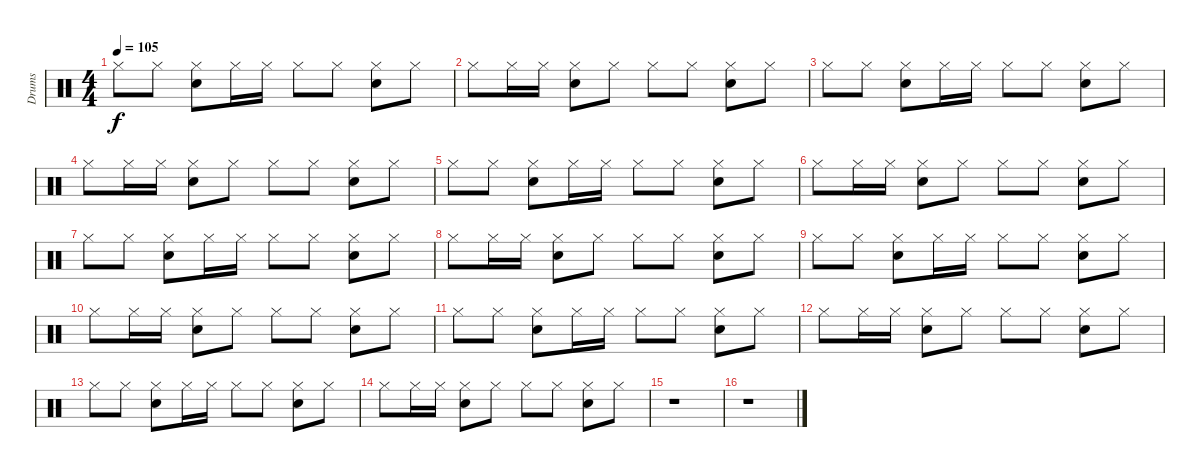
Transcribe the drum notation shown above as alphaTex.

\track ("Drums" "Drums") {instrument percussion}
\staff {score}
\articulation defaults
\ts (4 4)
\tempo 105
\clef neutral
\ks c "Hi-Hat (closed)".8{dy f} "Hi-Hat (closed)".8
("Hi-Hat (closed)" "Snare (hit) 2").8 "Hi-Hat (closed)".16 "Hi-Hat (closed)".16 "Hi-Hat (closed)".8 "Hi-Hat (closed)".8 ("Hi-Hat (closed)" "Snare (hit) 2").8 "Hi-Hat (closed)".8 |
"Hi-Hat (closed)".8 "Hi-Hat (closed)".16 "Hi-Hat (closed)".16 ("Hi-Hat (closed)" "Snare (hit) 2").8 "Hi-Hat (closed)".8 "Hi-Hat (closed)".8 "Hi-Hat (closed)".8 ("Hi-Hat (closed)" "Snare (hit) 2").8 "Hi-Hat (closed)".8 |
"Hi-Hat (closed)".8 "Hi-Hat (closed)".8 ("Hi-Hat (closed)" "Snare (hit) 2").8 "Hi-Hat (closed)".16 "Hi-Hat (closed)".16 "Hi-Hat (closed)".8 "Hi-Hat (closed)".8 ("Hi-Hat (closed)" "Snare (hit) 2").8 "Hi-Hat (closed)".8 |
"Hi-Hat (closed)".8 "Hi-Hat (closed)".16 "Hi-Hat (closed)".16 ("Hi-Hat (closed)" "Snare (hit) 2").8 "Hi-Hat (closed)".8 "Hi-Hat (closed)".8 "Hi-Hat (closed)".8 ("Hi-Hat (closed)" "Snare (hit) 2").8 "Hi-Hat (closed)".8 |
"Hi-Hat (closed)".8 "Hi-Hat (closed)".8 ("Hi-Hat (closed)" "Snare (hit) 2").8 "Hi-Hat (closed)".16 "Hi-Hat (closed)".16 "Hi-Hat (closed)".8 "Hi-Hat (closed)".8 ("Hi-Hat (closed)" "Snare (hit) 2").8 "Hi-Hat (closed)".8 |
"Hi-Hat (closed)".8 "Hi-Hat (closed)".16 "Hi-Hat (closed)".16 ("Hi-Hat (closed)" "Snare (hit) 2").8 "Hi-Hat (closed)".8 "Hi-Hat (closed)".8 "Hi-Hat (closed)".8 ("Hi-Hat (closed)" "Snare (hit) 2").8 "Hi-Hat (closed)".8 |
"Hi-Hat (closed)".8 "Hi-Hat (closed)".8 ("Hi-Hat (closed)" "Snare (hit) 2").8 "Hi-Hat (closed)".16 "Hi-Hat (closed)".16 "Hi-Hat (closed)".8 "Hi-Hat (closed)".8 ("Hi-Hat (closed)" "Snare (hit) 2").8 "Hi-Hat (closed)".8 |
"Hi-Hat (closed)".8 "Hi-Hat (closed)".16 "Hi-Hat (closed)".16 ("Hi-Hat (closed)" "Snare (hit) 2").8 "Hi-Hat (closed)".8 "Hi-Hat (closed)".8 "Hi-Hat (closed)".8 ("Hi-Hat (closed)" "Snare (hit) 2").8 "Hi-Hat (closed)".8 |
"Hi-Hat (closed)".8 "Hi-Hat (closed)".8 ("Hi-Hat (closed)" "Snare (hit) 2").8 "Hi-Hat (closed)".16 "Hi-Hat (closed)".16 "Hi-Hat (closed)".8 "Hi-Hat (closed)".8 ("Hi-Hat (closed)" "Snare (hit) 2").8 "Hi-Hat (closed)".8 |
"Hi-Hat (closed)".8 "Hi-Hat (closed)".16 "Hi-Hat (closed)".16 ("Hi-Hat (closed)" "Snare (hit) 2").8 "Hi-Hat (closed)".8 "Hi-Hat (closed)".8 "Hi-Hat (closed)".8 ("Hi-Hat (closed)" "Snare (hit) 2").8 "Hi-Hat (closed)".8 |
"Hi-Hat (closed)".8 "Hi-Hat (closed)".8 ("Hi-Hat (closed)" "Snare (hit) 2").8 "Hi-Hat (closed)".16 "Hi-Hat (closed)".16 "Hi-Hat (closed)".8 "Hi-Hat (closed)".8 ("Hi-Hat (closed)" "Snare (hit) 2").8 "Hi-Hat (closed)".8 |
"Hi-Hat (closed)".8 "Hi-Hat (closed)".16 "Hi-Hat (closed)".16 ("Hi-Hat (closed)" "Snare (hit) 2").8 "Hi-Hat (closed)".8 "Hi-Hat (closed)".8 "Hi-Hat (closed)".8 ("Hi-Hat (closed)" "Snare (hit) 2").8 "Hi-Hat (closed)".8 |
"Hi-Hat (closed)".8 "Hi-Hat (closed)".8 ("Hi-Hat (closed)" "Snare (hit) 2").8 "Hi-Hat (closed)".16 "Hi-Hat (closed)".16 "Hi-Hat (closed)".8 "Hi-Hat (closed)".8 ("Hi-Hat (closed)" "Snare (hit) 2").8 "Hi-Hat (closed)".8 |
"Hi-Hat (closed)".8 "Hi-Hat (closed)".16 "Hi-Hat (closed)".16 ("Hi-Hat (closed)" "Snare (hit) 2").8 "Hi-Hat (closed)".8 "Hi-Hat (closed)".8 "Hi-Hat (closed)".8 ("Hi-Hat (closed)" "Snare (hit) 2").8 "Hi-Hat (closed)".8 |
r.1 |
r.1
